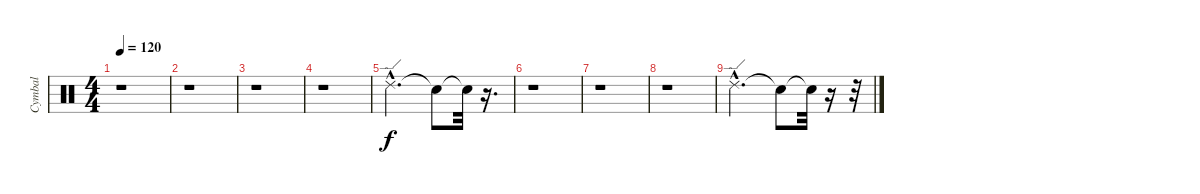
\track ("Cymbal" "Cymbal") {instrument percussion}
\staff {score}
\articulation defaults
\ts (4 4)
\tempo 120
\clef neutral
\ks c
r.1{dy f} |
r.1 |
r.1 |
r.1 |
"Ride (edge) 2"{hac}.2{d} "Snare (hit)"{t}.8 "Snare (hit)"{t}.32 r.16{d} |
r.1 |
r.1 |
r.1 |
"Ride (edge) 2"{hac}.2{d} "Snare (hit)"{t}.8 "Snare (hit)"{t}.32 r.16 r.32
